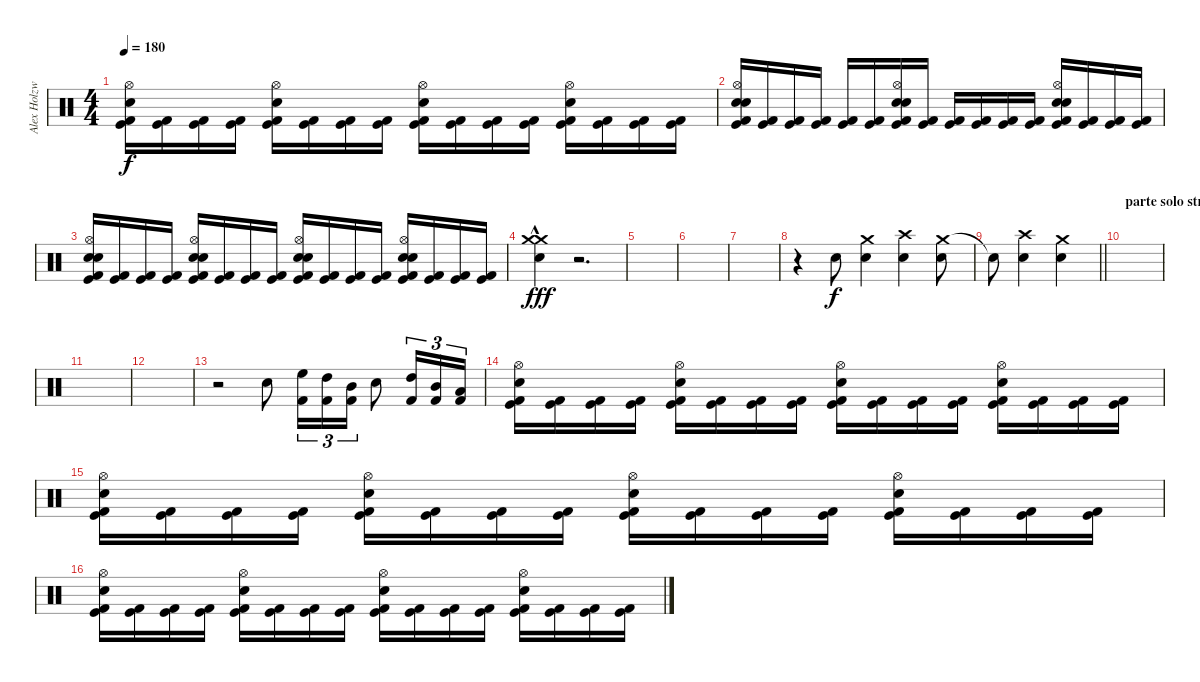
\track ("Alex Holzwarth" "Alex Holzw") {instrument percussion}
\staff {score}
\articulation defaults
\ts (4 4)
\tempo 180
\clef neutral
\ks c
("Kick (hit) 2" "Kick (hit)" "Snare (hit) 2" "Hi-Hat (open)").16{dy f} ("Kick (hit) 2" "Kick (hit)").16 ("Kick (hit) 2" "Kick (hit)").16 ("Kick (hit) 2" "Kick (hit)").16 ("Kick (hit) 2" "Kick (hit)" "Hi-Hat (open)" "Snare (hit) 2").16 ("Kick (hit) 2" "Kick (hit)").16 ("Kick (hit) 2" "Kick (hit)").16 ("Kick (hit) 2" "Kick (hit)").16 ("Kick (hit) 2" "Kick (hit)" "Hi-Hat (open)" "Snare (hit) 2").16 ("Kick (hit) 2" "Kick (hit)").16 ("Kick (hit) 2" "Kick (hit)").16 ("Kick (hit) 2" "Kick (hit)").16 ("Kick (hit) 2" "Kick (hit)" "Hi-Hat (open)" "Snare (hit) 2").16 ("Kick (hit) 2" "Kick (hit)").16 ("Kick (hit) 2" "Kick (hit)").16 ("Kick (hit) 2" "Kick (hit)").16 |
("Kick (hit) 2" "Kick (hit)" "Snare (hit) 2" "Electric Snare (hit)" "Hi-Hat (open)").16 ("Kick (hit) 2" "Kick (hit)").16 ("Kick (hit) 2" "Kick (hit)").16 ("Kick (hit) 2" "Kick (hit)").16 ("Kick (hit) 2" "Kick (hit)").16 ("Kick (hit) 2" "Kick (hit)").16 ("Kick (hit) 2" "Kick (hit)" "Snare (hit) 2" "Electric Snare (hit)" "Hi-Hat (open)").16 ("Kick (hit) 2" "Kick (hit)").16 ("Kick (hit) 2" "Kick (hit)").16 ("Kick (hit) 2" "Kick (hit)").16 ("Kick (hit) 2" "Kick (hit)").16 ("Kick (hit) 2" "Kick (hit)").16 ("Kick (hit) 2" "Kick (hit)" "Snare (hit) 2" "Electric Snare (hit)" "Hi-Hat (open)").16 ("Kick (hit) 2" "Kick (hit)").16 ("Kick (hit) 2" "Kick (hit)").16 ("Kick (hit) 2" "Kick (hit)").16 |
("Kick (hit) 2" "Kick (hit)" "Snare (hit) 2" "Electric Snare (hit)" "Hi-Hat (open)").16 ("Kick (hit) 2" "Kick (hit)").16 ("Kick (hit) 2" "Kick (hit)").16 ("Kick (hit) 2" "Kick (hit)").16 ("Kick (hit) 2" "Kick (hit)" "Snare (hit) 2" "Electric Snare (hit)" "Hi-Hat (open)").16 ("Kick (hit) 2" "Kick (hit)").16 ("Kick (hit) 2" "Kick (hit)").16 ("Kick (hit) 2" "Kick (hit)").16 ("Kick (hit) 2" "Kick (hit)" "Hi-Hat (open)" "Snare (hit) 2" "Electric Snare (hit)").16 ("Kick (hit) 2" "Kick (hit)").16 ("Kick (hit) 2" "Kick (hit)").16 ("Kick (hit) 2" "Kick (hit)").16 ("Kick (hit) 2" "Kick (hit)" "Snare (hit) 2" "Electric Snare (hit)" "Hi-Hat (open)").16 ("Kick (hit) 2" "Kick (hit)").16 ("Kick (hit) 2" "Kick (hit)").16 ("Kick (hit) 2" "Kick (hit)").16 |
("Crash medium (hit)"{hac} "Snare (hit) 2" "Crash medium (hit)"{hac}).4{dy fff volume 13} r.2{d volume 0} |
|
|
|
r.4 "Snare (hit) 2".8{dy f} ("Crash medium (hit)" "Snare (hit) 2").4 ("Crash high (hit)" "Snare (hit) 2").4 ("Crash medium (hit)" "Snare (hit) 2").8 |
\barLineRight lightlight "Snare (hit)"{t}.8
("Crash high (hit)" "Snare (hit) 2").4 ("Crash medium (hit)" "Snare (hit) 2").4 |
\section ("" "parte solo strings")
|
|
|
r.2 "Snare (hit) 2".8 ("Kick (hit) 2" "High Floor Tom (hit)").16{tu (3 2)} ("Kick (hit) 2" "High Tom (hit)").16{tu (3 2)} ("Kick (hit) 2" "Mid Tom (hit)").16{tu (3 2)} "Snare (hit) 2".8 ("Kick (hit) 2" "High Tom (hit)").16{tu (3 2)} ("Kick (hit) 2" "Mid Tom (hit)").16{tu (3 2)} ("Kick (hit) 2" "Low Tom (hit)").16{tu (3 2)} |
("Kick (hit) 2" "Kick (hit)" "Snare (hit) 2" "Hi-Hat (open)").16 ("Kick (hit) 2" "Kick (hit)").16 ("Kick (hit) 2" "Kick (hit)").16 ("Kick (hit) 2" "Kick (hit)").16 ("Kick (hit) 2" "Kick (hit)" "Hi-Hat (open)" "Snare (hit) 2").16 ("Kick (hit) 2" "Kick (hit)").16 ("Kick (hit) 2" "Kick (hit)").16 ("Kick (hit) 2" "Kick (hit)").16 ("Kick (hit) 2" "Kick (hit)" "Hi-Hat (open)" "Snare (hit) 2").16 ("Kick (hit) 2" "Kick (hit)").16 ("Kick (hit) 2" "Kick (hit)").16 ("Kick (hit) 2" "Kick (hit)").16 ("Kick (hit) 2" "Kick (hit)" "Hi-Hat (open)" "Snare (hit) 2").16 ("Kick (hit) 2" "Kick (hit)").16 ("Kick (hit) 2" "Kick (hit)").16 ("Kick (hit) 2" "Kick (hit)").16 |
("Kick (hit) 2" "Kick (hit)" "Snare (hit) 2" "Hi-Hat (open)").16 ("Kick (hit) 2" "Kick (hit)").16 ("Kick (hit) 2" "Kick (hit)").16 ("Kick (hit) 2" "Kick (hit)").16 ("Kick (hit) 2" "Kick (hit)" "Hi-Hat (open)" "Snare (hit) 2").16 ("Kick (hit) 2" "Kick (hit)").16 ("Kick (hit) 2" "Kick (hit)").16 ("Kick (hit) 2" "Kick (hit)").16 ("Kick (hit) 2" "Kick (hit)" "Hi-Hat (open)" "Snare (hit) 2").16 ("Kick (hit) 2" "Kick (hit)").16 ("Kick (hit) 2" "Kick (hit)").16 ("Kick (hit) 2" "Kick (hit)").16 ("Kick (hit) 2" "Kick (hit)" "Hi-Hat (open)" "Snare (hit) 2").16 ("Kick (hit) 2" "Kick (hit)").16 ("Kick (hit) 2" "Kick (hit)").16 ("Kick (hit) 2" "Kick (hit)").16 |
("Kick (hit) 2" "Kick (hit)" "Snare (hit) 2" "Hi-Hat (open)").16 ("Kick (hit) 2" "Kick (hit)").16 ("Kick (hit) 2" "Kick (hit)").16 ("Kick (hit) 2" "Kick (hit)").16 ("Kick (hit) 2" "Kick (hit)" "Hi-Hat (open)" "Snare (hit) 2").16 ("Kick (hit) 2" "Kick (hit)").16 ("Kick (hit) 2" "Kick (hit)").16 ("Kick (hit) 2" "Kick (hit)").16 ("Kick (hit) 2" "Kick (hit)" "Hi-Hat (open)" "Snare (hit) 2").16 ("Kick (hit) 2" "Kick (hit)").16 ("Kick (hit) 2" "Kick (hit)").16 ("Kick (hit) 2" "Kick (hit)").16 ("Kick (hit) 2" "Kick (hit)" "Hi-Hat (open)" "Snare (hit) 2").16 ("Kick (hit) 2" "Kick (hit)").16 ("Kick (hit) 2" "Kick (hit)").16 ("Kick (hit) 2" "Kick (hit)").16
